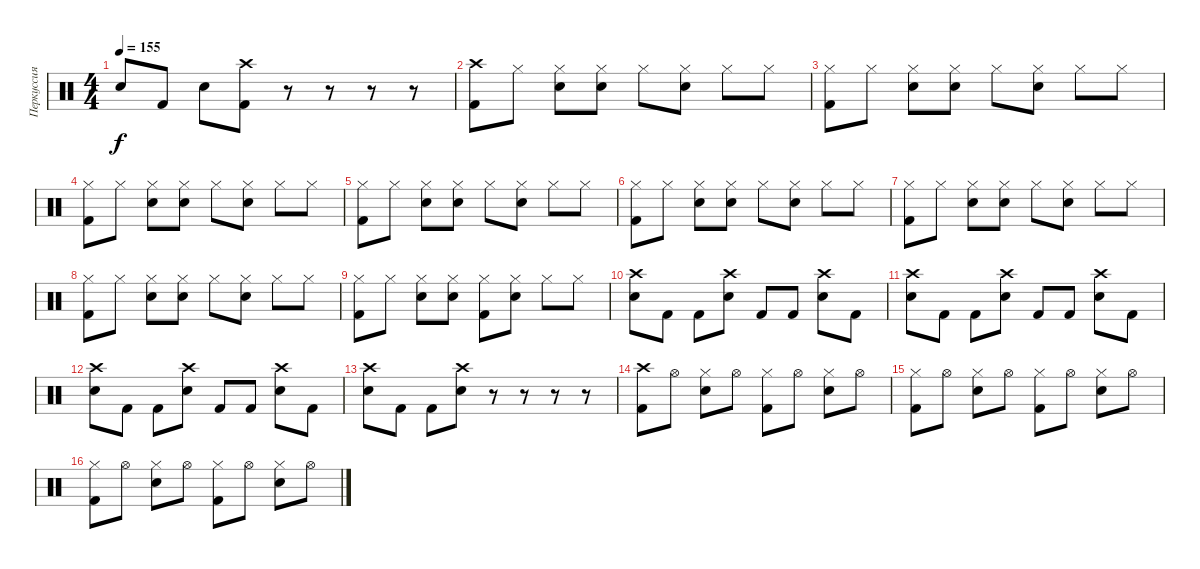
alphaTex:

\track ("Перкуссия" "Перкуссия") {instrument percussion}
\staff {score}
\articulation defaults
\ts (4 4)
\tempo 155
\clef neutral
\ks c "Snare (hit) 2".8{dy f} "Kick (hit) 2".8 "Snare (hit) 2".8
("Crash high (hit)" "Kick (hit) 2").8 r.8 r.8 r.8 r.8 |
("Crash high (hit)" "Kick (hit) 2").8 "Hi-Hat (closed)".8 ("Hi-Hat (closed)" "Snare (hit) 2").8 ("Hi-Hat (closed)" "Snare (hit) 2").8 "Hi-Hat (closed)".8 ("Hi-Hat (closed)" "Snare (hit) 2").8 "Hi-Hat (closed)".8 "Hi-Hat (closed)".8 |
("Hi-Hat (closed)" "Kick (hit) 2").8 "Hi-Hat (closed)".8 ("Hi-Hat (closed)" "Snare (hit) 2").8 ("Hi-Hat (closed)" "Snare (hit) 2").8 "Hi-Hat (closed)".8 ("Hi-Hat (closed)" "Snare (hit) 2").8 "Hi-Hat (closed)".8 "Hi-Hat (closed)".8 |
("Hi-Hat (closed)" "Kick (hit) 2").8 "Hi-Hat (closed)".8 ("Hi-Hat (closed)" "Snare (hit) 2").8 ("Hi-Hat (closed)" "Snare (hit) 2").8 "Hi-Hat (closed)".8 ("Hi-Hat (closed)" "Snare (hit) 2").8 "Hi-Hat (closed)".8 "Hi-Hat (closed)".8 |
("Hi-Hat (closed)" "Kick (hit) 2").8 "Hi-Hat (closed)".8 ("Hi-Hat (closed)" "Snare (hit) 2").8 ("Hi-Hat (closed)" "Snare (hit) 2").8 "Hi-Hat (closed)".8 ("Hi-Hat (closed)" "Snare (hit) 2").8 "Hi-Hat (closed)".8 "Hi-Hat (closed)".8 |
("Hi-Hat (closed)" "Kick (hit) 2").8 "Hi-Hat (closed)".8 ("Hi-Hat (closed)" "Snare (hit) 2").8 ("Hi-Hat (closed)" "Snare (hit) 2").8 "Hi-Hat (closed)".8 ("Hi-Hat (closed)" "Snare (hit) 2").8 "Hi-Hat (closed)".8 "Hi-Hat (closed)".8 |
("Hi-Hat (closed)" "Kick (hit) 2").8 "Hi-Hat (closed)".8 ("Hi-Hat (closed)" "Snare (hit) 2").8 ("Hi-Hat (closed)" "Snare (hit) 2").8 "Hi-Hat (closed)".8 ("Hi-Hat (closed)" "Snare (hit) 2").8 "Hi-Hat (closed)".8 "Hi-Hat (closed)".8 |
("Hi-Hat (closed)" "Kick (hit) 2").8 "Hi-Hat (closed)".8 ("Hi-Hat (closed)" "Snare (hit) 2").8 ("Hi-Hat (closed)" "Snare (hit) 2").8 "Hi-Hat (closed)".8 ("Hi-Hat (closed)" "Snare (hit) 2").8 "Hi-Hat (closed)".8 "Hi-Hat (closed)".8 |
("Hi-Hat (closed)" "Kick (hit) 2").8 "Hi-Hat (closed)".8 ("Hi-Hat (closed)" "Snare (hit) 2").8 ("Hi-Hat (closed)" "Snare (hit) 2").8 ("Hi-Hat (closed)" "Kick (hit) 2").8 ("Hi-Hat (closed)" "Snare (hit) 2").8 "Hi-Hat (closed)".8 "Hi-Hat (closed)".8 |
("Crash high (hit)" "Snare (hit) 2").8 "Kick (hit) 2".8 "Kick (hit) 2".8 ("Crash high (hit)" "Snare (hit) 2").8 "Kick (hit) 2".8 "Kick (hit) 2".8 ("Crash high (hit)" "Snare (hit) 2").8 "Kick (hit) 2".8 |
("Crash high (hit)" "Snare (hit) 2").8 "Kick (hit) 2".8 "Kick (hit) 2".8 ("Crash high (hit)" "Snare (hit) 2").8 "Kick (hit) 2".8 "Kick (hit) 2".8 ("Crash high (hit)" "Snare (hit) 2").8 "Kick (hit) 2".8 |
("Crash high (hit)" "Snare (hit) 2").8 "Kick (hit) 2".8 "Kick (hit) 2".8 ("Crash high (hit)" "Snare (hit) 2").8 "Kick (hit) 2".8 "Kick (hit) 2".8 ("Crash high (hit)" "Snare (hit) 2").8 "Kick (hit) 2".8 |
("Crash high (hit)" "Snare (hit) 2").8 "Kick (hit) 2".8 "Kick (hit) 2".8 ("Crash high (hit)" "Snare (hit) 2").8 r.8 r.8 r.8 r.8 |
("Crash high (hit)" "Kick (hit) 2").8 "Hi-Hat (open)".8 ("Hi-Hat (closed)" "Snare (hit) 2").8 "Hi-Hat (open)".8 ("Hi-Hat (closed)" "Kick (hit) 2").8 "Hi-Hat (open)".8 ("Hi-Hat (closed)" "Snare (hit) 2").8 "Hi-Hat (open)".8 |
("Hi-Hat (closed)" "Kick (hit) 2").8 "Hi-Hat (open)".8 ("Hi-Hat (closed)" "Snare (hit) 2").8 "Hi-Hat (open)".8 ("Hi-Hat (closed)" "Kick (hit) 2").8 "Hi-Hat (open)".8 ("Hi-Hat (closed)" "Snare (hit) 2").8 "Hi-Hat (open)".8 |
("Hi-Hat (closed)" "Kick (hit) 2").8 "Hi-Hat (open)".8 ("Hi-Hat (closed)" "Snare (hit) 2").8 "Hi-Hat (open)".8 ("Hi-Hat (closed)" "Kick (hit) 2").8 "Hi-Hat (open)".8 ("Hi-Hat (closed)" "Snare (hit) 2").8 "Hi-Hat (open)".8
